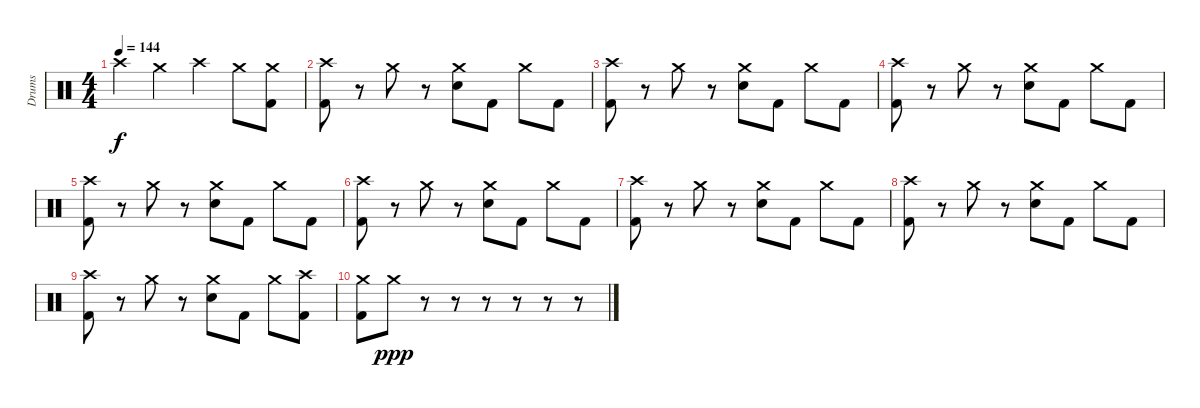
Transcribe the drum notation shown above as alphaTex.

\track ("Drums" "Drums") {instrument percussion}
\staff
\articulation defaults
\ts (4 4)
\tempo 144
\clef neutral
\ks c "Crash high (hit)".4{dy f volume 13} "Crash medium (hit)".4 "Crash high (hit)".4 "Crash medium (hit)".8
("Crash medium (hit)" "Kick (hit) 2").8 |
("Crash high (hit)" "Kick (hit) 2").8 r.8 "Crash medium (hit)".8 r.8 ("Crash medium (hit)" "Electric Snare (hit)").8 "Kick (hit) 2".8 "Crash medium (hit)".8 "Kick (hit) 2".8 |
("Crash high (hit)" "Kick (hit) 2").8 r.8 "Crash medium (hit)".8 r.8 ("Crash medium (hit)" "Electric Snare (hit)").8 "Kick (hit) 2".8 "Crash medium (hit)".8 "Kick (hit) 2".8 |
("Crash high (hit)" "Kick (hit) 2").8 r.8 "Crash medium (hit)".8 r.8 ("Crash medium (hit)" "Electric Snare (hit)").8 "Kick (hit) 2".8 "Crash medium (hit)".8 "Kick (hit) 2".8 |
("Crash high (hit)" "Kick (hit) 2").8 r.8 "Crash medium (hit)".8 r.8 ("Crash medium (hit)" "Electric Snare (hit)").8 "Kick (hit) 2".8 "Crash medium (hit)".8 "Kick (hit) 2".8 |
("Crash high (hit)" "Kick (hit) 2").8 r.8 "Crash medium (hit)".8 r.8 ("Crash medium (hit)" "Electric Snare (hit)").8 "Kick (hit) 2".8 "Crash medium (hit)".8 "Kick (hit) 2".8 |
("Crash high (hit)" "Kick (hit) 2").8 r.8 "Crash medium (hit)".8 r.8 ("Crash medium (hit)" "Electric Snare (hit)").8 "Kick (hit) 2".8 "Crash medium (hit)".8 "Kick (hit) 2".8 |
("Crash high (hit)" "Kick (hit) 2").8 r.8 "Crash medium (hit)".8 r.8 ("Crash medium (hit)" "Electric Snare (hit)").8 "Kick (hit) 2".8 "Crash medium (hit)".8 "Kick (hit) 2".8 |
("Crash high (hit)" "Kick (hit) 2").8 r.8 "Crash medium (hit)".8 r.8 ("Crash medium (hit)" "Electric Snare (hit)").8 "Kick (hit) 2".8 "Crash medium (hit)".8 ("Crash high (hit)" "Kick (hit) 2").8 |
("Crash medium (hit)" "Kick (hit) 2").8 "Crash medium (hit)".8{dy ppp} r.8 r.8 r.8 r.8 r.8 r.8
